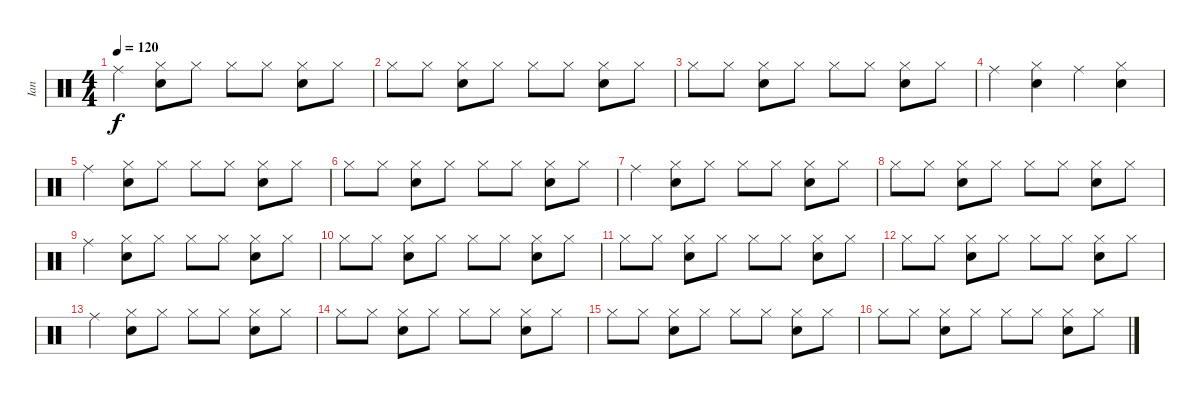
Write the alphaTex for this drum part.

\track ("Ian" "Ian") {instrument percussion}
\staff {score}
\articulation defaults
\ts (4 4)
\tempo 120
\clef neutral
\ks c "Ride (middle)".4{dy f}
("Hi-Hat (closed)" "Snare (hit) 2").8 "Hi-Hat (closed)".8 "Hi-Hat (closed)".8 "Hi-Hat (closed)".8 ("Hi-Hat (closed)" "Snare (hit) 2").8 "Hi-Hat (closed)".8 |
"Hi-Hat (closed)".8 "Hi-Hat (closed)".8 ("Hi-Hat (closed)" "Snare (hit) 2").8 "Hi-Hat (closed)".8 "Hi-Hat (closed)".8 "Hi-Hat (closed)".8 ("Hi-Hat (closed)" "Snare (hit) 2").8 "Hi-Hat (closed)".8 |
"Hi-Hat (closed)".8 "Hi-Hat (closed)".8 ("Hi-Hat (closed)" "Snare (hit) 2").8 "Hi-Hat (closed)".8 "Hi-Hat (closed)".8 "Hi-Hat (closed)".8 ("Hi-Hat (closed)" "Snare (hit) 2").8 "Hi-Hat (closed)".8 |
"Ride (middle)".4 ("Hi-Hat (closed)" "Snare (hit) 2").4 "Ride (middle)".4 ("Hi-Hat (closed)" "Snare (hit) 2").4 |
"Ride (middle)".4 ("Hi-Hat (closed)" "Snare (hit) 2").8 "Hi-Hat (closed)".8 "Hi-Hat (closed)".8 "Hi-Hat (closed)".8 ("Hi-Hat (closed)" "Snare (hit) 2").8 "Hi-Hat (closed)".8 |
"Hi-Hat (closed)".8 "Hi-Hat (closed)".8 ("Hi-Hat (closed)" "Snare (hit) 2").8 "Hi-Hat (closed)".8 "Hi-Hat (closed)".8 "Hi-Hat (closed)".8 ("Hi-Hat (closed)" "Snare (hit) 2").8 "Hi-Hat (closed)".8 |
"Ride (middle)".4 ("Hi-Hat (closed)" "Snare (hit) 2").8 "Hi-Hat (closed)".8 "Hi-Hat (closed)".8 "Hi-Hat (closed)".8 ("Hi-Hat (closed)" "Snare (hit) 2").8 "Hi-Hat (closed)".8 |
"Hi-Hat (closed)".8 "Hi-Hat (closed)".8 ("Hi-Hat (closed)" "Snare (hit) 2").8 "Hi-Hat (closed)".8 "Hi-Hat (closed)".8 "Hi-Hat (closed)".8 ("Hi-Hat (closed)" "Snare (hit) 2").8 "Hi-Hat (closed)".8 |
"Ride (middle)".4 ("Hi-Hat (closed)" "Snare (hit) 2").8 "Hi-Hat (closed)".8 "Hi-Hat (closed)".8 "Hi-Hat (closed)".8 ("Hi-Hat (closed)" "Snare (hit) 2").8 "Hi-Hat (closed)".8 |
"Hi-Hat (closed)".8 "Hi-Hat (closed)".8 ("Hi-Hat (closed)" "Snare (hit) 2").8 "Hi-Hat (closed)".8 "Hi-Hat (closed)".8 "Hi-Hat (closed)".8 ("Hi-Hat (closed)" "Snare (hit) 2").8 "Hi-Hat (closed)".8 |
"Hi-Hat (closed)".8 "Hi-Hat (closed)".8 ("Hi-Hat (closed)" "Snare (hit) 2").8 "Hi-Hat (closed)".8 "Hi-Hat (closed)".8 "Hi-Hat (closed)".8 ("Hi-Hat (closed)" "Snare (hit) 2").8 "Hi-Hat (closed)".8 |
"Hi-Hat (closed)".8 "Hi-Hat (closed)".8 ("Hi-Hat (closed)" "Snare (hit) 2").8 "Hi-Hat (closed)".8 "Hi-Hat (closed)".8 "Hi-Hat (closed)".8 ("Hi-Hat (closed)" "Snare (hit) 2").8 "Hi-Hat (closed)".8 |
"Ride (middle)".4 ("Hi-Hat (closed)" "Snare (hit) 2").8 "Hi-Hat (closed)".8 "Hi-Hat (closed)".8 "Hi-Hat (closed)".8 ("Hi-Hat (closed)" "Snare (hit) 2").8 "Hi-Hat (closed)".8 |
"Hi-Hat (closed)".8 "Hi-Hat (closed)".8 ("Hi-Hat (closed)" "Snare (hit) 2").8 "Hi-Hat (closed)".8 "Hi-Hat (closed)".8 "Hi-Hat (closed)".8 ("Hi-Hat (closed)" "Snare (hit) 2").8 "Hi-Hat (closed)".8 |
"Hi-Hat (closed)".8 "Hi-Hat (closed)".8 ("Hi-Hat (closed)" "Snare (hit) 2").8 "Hi-Hat (closed)".8 "Hi-Hat (closed)".8 "Hi-Hat (closed)".8 ("Hi-Hat (closed)" "Snare (hit) 2").8 "Hi-Hat (closed)".8 |
"Hi-Hat (closed)".8 "Hi-Hat (closed)".8 ("Hi-Hat (closed)" "Snare (hit) 2").8 "Hi-Hat (closed)".8 "Hi-Hat (closed)".8 "Hi-Hat (closed)".8 ("Hi-Hat (closed)" "Snare (hit) 2").8 "Hi-Hat (closed)".8
